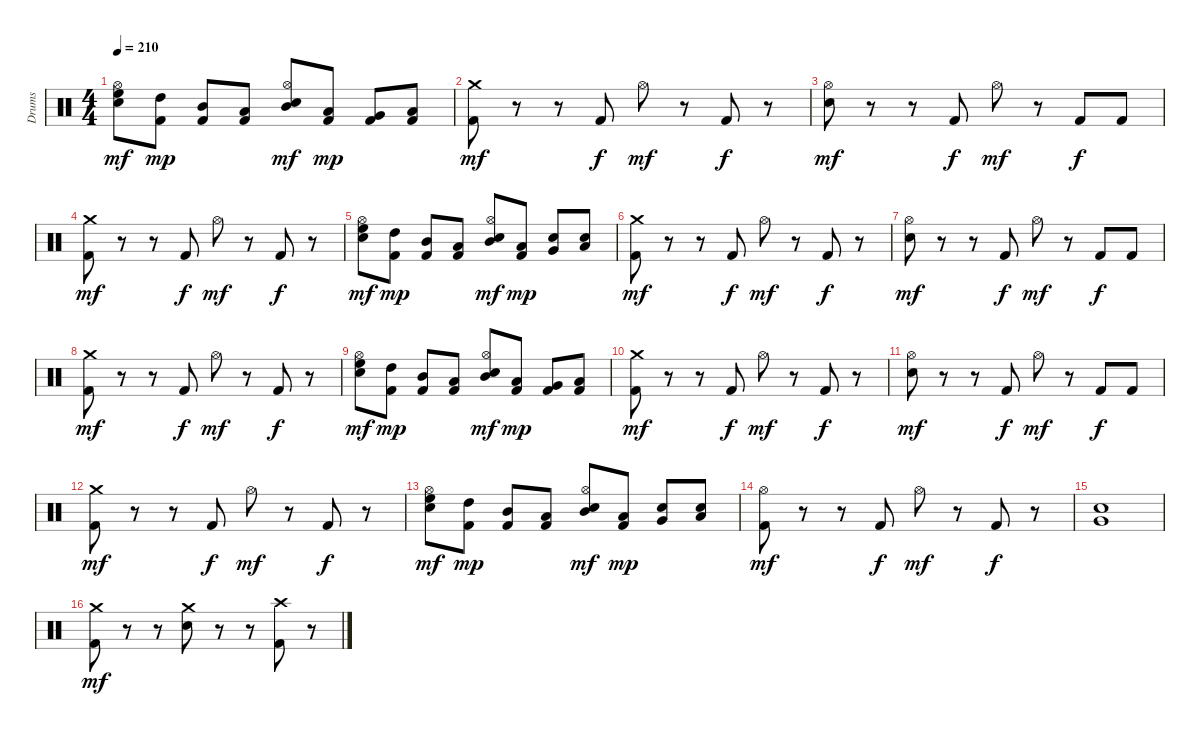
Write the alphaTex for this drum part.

\track ("Drums" "Drums") {instrument percussion}
\staff {score}
\articulation defaults
\ts (4 4)
\tempo 210
\clef neutral
\ks c
("Snare (hit) 2" "High Floor Tom (hit)" "Hi-Hat (open)").8{dy mf} ("Kick (hit) 2" "High Tom (hit)").8{dy mp} ("Kick (hit) 2" "Mid Tom (hit)").8 ("Kick (hit) 2" "Low Tom (hit)").8 ("Snare (hit) 2" "Mid Tom (hit)" "Hi-Hat (open)").8{dy mf} ("Kick (hit) 2" "Low Tom (hit)").8{dy mp} ("Kick (hit) 2" "Very Low Tom (hit)").8 ("Kick (hit) 2" "Low Floor Tom (hit)").8 |
("Kick (hit) 2" "Crash medium (hit)").8{dy mf} r.8 r.8 "Kick (hit) 2".8{dy f} "Hi-Hat (open)".8{dy mf} r.8 "Kick (hit) 2".8{dy f} r.8 |
("Snare (hit) 2" "Hi-Hat (open)").8{dy mf} r.8 r.8 "Kick (hit) 2".8{dy f} "Hi-Hat (open)".8{dy mf} r.8 "Kick (hit) 2".8{dy f} "Kick (hit) 2".8 |
("Kick (hit) 2" "Crash medium (hit)").8{dy mf} r.8 r.8 "Kick (hit) 2".8{dy f} "Hi-Hat (open)".8{dy mf} r.8 "Kick (hit) 2".8{dy f} r.8 |
("Snare (hit) 2" "High Floor Tom (hit)" "Hi-Hat (open)").8{dy mf} ("Kick (hit) 2" "High Tom (hit)").8{dy mp} ("Kick (hit) 2" "Mid Tom (hit)").8 ("Kick (hit) 2" "Low Tom (hit)").8 ("Snare (hit) 2" "Mid Tom (hit)" "Hi-Hat (open)").8{dy mf} ("Kick (hit) 2" "Low Tom (hit)").8{dy mp} ("Snare (hit) 2" "Very Low Tom (hit)").8 ("Snare (hit) 2" "Low Floor Tom (hit)").8 |
("Kick (hit) 2" "Crash medium (hit)").8{dy mf} r.8 r.8 "Kick (hit) 2".8{dy f} "Hi-Hat (open)".8{dy mf} r.8 "Kick (hit) 2".8{dy f} r.8 |
("Snare (hit) 2" "Hi-Hat (open)").8{dy mf} r.8 r.8 "Kick (hit) 2".8{dy f} "Hi-Hat (open)".8{dy mf} r.8 "Kick (hit) 2".8{dy f} "Kick (hit) 2".8 |
("Kick (hit) 2" "Crash medium (hit)").8{dy mf} r.8 r.8 "Kick (hit) 2".8{dy f} "Hi-Hat (open)".8{dy mf} r.8 "Kick (hit) 2".8{dy f} r.8 |
("Snare (hit) 2" "High Floor Tom (hit)" "Hi-Hat (open)").8{dy mf} ("Kick (hit) 2" "High Tom (hit)").8{dy mp} ("Kick (hit) 2" "Mid Tom (hit)").8 ("Kick (hit) 2" "Low Tom (hit)").8 ("Snare (hit) 2" "Mid Tom (hit)" "Hi-Hat (open)").8{dy mf} ("Kick (hit) 2" "Low Tom (hit)").8{dy mp} ("Kick (hit) 2" "Very Low Tom (hit)").8 ("Kick (hit) 2" "Low Floor Tom (hit)").8 |
("Kick (hit) 2" "Crash medium (hit)").8{dy mf} r.8 r.8 "Kick (hit) 2".8{dy f} "Hi-Hat (open)".8{dy mf} r.8 "Kick (hit) 2".8{dy f} r.8 |
("Snare (hit) 2" "Hi-Hat (open)").8{dy mf} r.8 r.8 "Kick (hit) 2".8{dy f} "Hi-Hat (open)".8{dy mf} r.8 "Kick (hit) 2".8{dy f} "Kick (hit) 2".8 |
("Kick (hit) 2" "Crash medium (hit)").8{dy mf} r.8 r.8 "Kick (hit) 2".8{dy f} "Hi-Hat (open)".8{dy mf} r.8 "Kick (hit) 2".8{dy f} r.8 |
("Snare (hit) 2" "High Floor Tom (hit)" "Hi-Hat (open)").8{dy mf} ("Kick (hit) 2" "High Tom (hit)").8{dy mp} ("Kick (hit) 2" "Mid Tom (hit)").8 ("Kick (hit) 2" "Low Tom (hit)").8 ("Snare (hit) 2" "Mid Tom (hit)" "Hi-Hat (open)").8{dy mf} ("Kick (hit) 2" "Low Tom (hit)").8{dy mp} ("Snare (hit) 2" "Very Low Tom (hit)").8 ("Snare (hit) 2" "Low Floor Tom (hit)").8 |
("Kick (hit) 2" "Hi-Hat (open)").8{dy mf} r.8 r.8 "Kick (hit) 2".8{dy f} "Hi-Hat (open)".8{dy mf} r.8 "Kick (hit) 2".8{dy f} r.8 |
("Snare (hit) 2" "Very Low Tom (hit)").1 |
("Kick (hit) 2" "Crash medium (hit)").8{dy mf} r.8 r.8 ("Snare (hit) 2" "Crash medium (hit)").8 r.8 r.8 ("Kick (hit) 2" "Crash high (hit)").8 r.8
